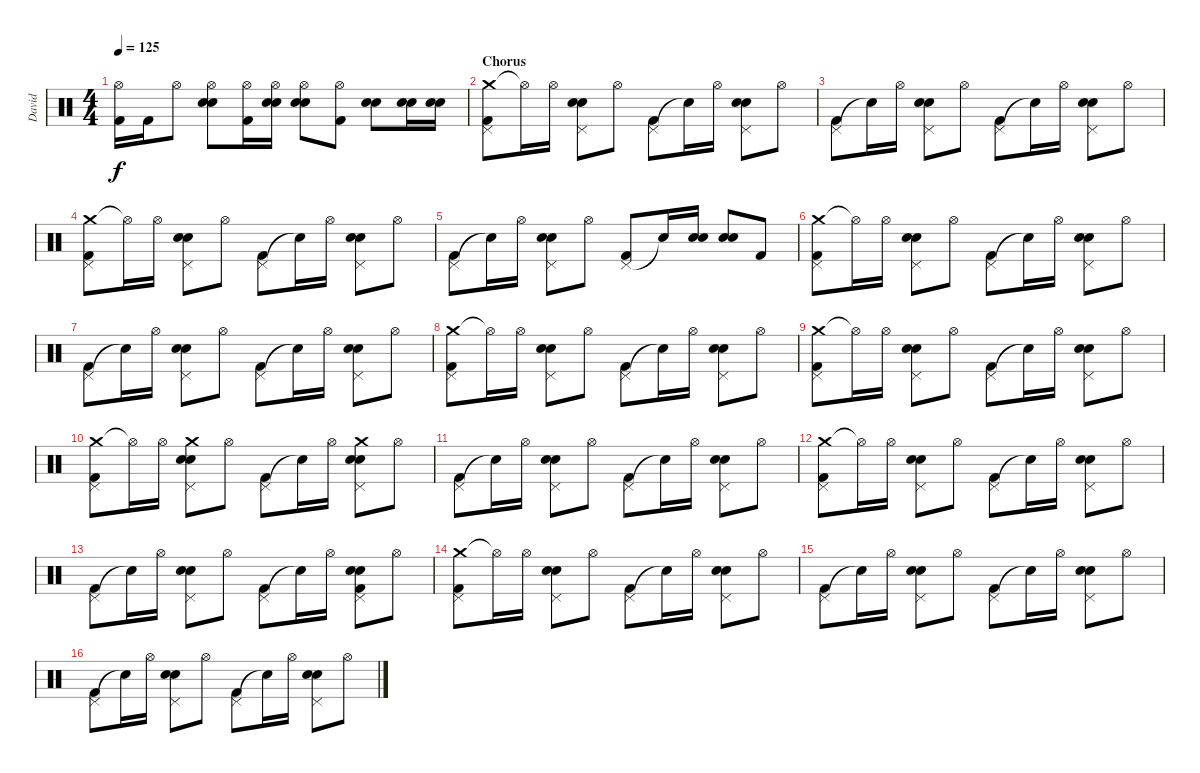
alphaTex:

\track ("David" "David") {instrument percussion}
\staff {score}
\articulation defaults
\ts (4 4)
\tempo 125
\clef neutral
\ks c
("Hi-Hat (open)" "Kick (hit) 2").16{dy f} "Kick (hit) 2".16 "Hi-Hat (open)".8 ("Hi-Hat (open)" "Electric Snare (hit)" "Snare (hit) 2").8 ("Hi-Hat (open)" "Kick (hit) 2").16 ("Hi-Hat (open)" "Electric Snare (hit)" "Snare (hit) 2").16 ("Hi-Hat (open)" "Electric Snare (hit)" "Snare (hit) 2").8 ("Hi-Hat (open)" "Kick (hit) 2").8 ("Electric Snare (hit)" "Snare (hit) 2").8 ("Electric Snare (hit)" "Snare (hit) 2").16 ("Electric Snare (hit)" "Snare (hit) 2").16 |
\section ("" "Chorus")
("Crash medium (hit)" "Pedal Hi-Hat (hit)" "Kick (hit) 2").8 "Hi-Hat (open)"{t}.16 "Hi-Hat (open)".16 ("Electric Snare (hit)" "Snare (hit) 2" "Pedal Hi-Hat (hit)").8 "Hi-Hat (open)".8 ("Pedal Hi-Hat (hit)" "Kick (hit) 2").8 "Snare (hit)"{t}.16 "Hi-Hat (open)".16 ("Snare (hit) 2" "Electric Snare (hit)" "Pedal Hi-Hat (hit)").8 "Hi-Hat (open)".8 |
("Pedal Hi-Hat (hit)" "Kick (hit) 2").8 "Snare (hit)"{t}.16 "Hi-Hat (open)".16 ("Electric Snare (hit)" "Snare (hit) 2" "Pedal Hi-Hat (hit)").8 "Hi-Hat (open)".8 ("Pedal Hi-Hat (hit)" "Kick (hit) 2").8 "Snare (hit)"{t}.16 "Hi-Hat (open)".16 ("Snare (hit) 2" "Electric Snare (hit)" "Pedal Hi-Hat (hit)").8 "Hi-Hat (open)".8 |
("Crash medium (hit)" "Pedal Hi-Hat (hit)" "Kick (hit) 2").8 "Hi-Hat (open)"{t}.16 "Hi-Hat (open)".16 ("Electric Snare (hit)" "Snare (hit) 2" "Pedal Hi-Hat (hit)").8 "Hi-Hat (open)".8 ("Pedal Hi-Hat (hit)" "Kick (hit) 2").8 "Snare (hit)"{t}.16 "Hi-Hat (open)".16 ("Snare (hit) 2" "Electric Snare (hit)" "Pedal Hi-Hat (hit)").8 "Hi-Hat (open)".8 |
("Pedal Hi-Hat (hit)" "Kick (hit) 2").8 "Snare (hit)"{t}.16 "Hi-Hat (open)".16 ("Electric Snare (hit)" "Snare (hit) 2" "Pedal Hi-Hat (hit)").8 "Hi-Hat (open)".8 ("Pedal Hi-Hat (hit)" "Kick (hit) 2").8 "Snare (hit)"{t}.16 ("Snare (hit) 2" "Electric Snare (hit)").16 ("Snare (hit) 2" "Electric Snare (hit)").8 "Kick (hit) 2".8 |
("Crash medium (hit)" "Pedal Hi-Hat (hit)" "Kick (hit) 2").8 "Hi-Hat (open)"{t}.16 "Hi-Hat (open)".16 ("Electric Snare (hit)" "Snare (hit) 2" "Pedal Hi-Hat (hit)").8 "Hi-Hat (open)".8 ("Pedal Hi-Hat (hit)" "Kick (hit) 2").8 "Snare (hit)"{t}.16 "Hi-Hat (open)".16 ("Snare (hit) 2" "Electric Snare (hit)" "Pedal Hi-Hat (hit)").8 "Hi-Hat (open)".8 |
("Pedal Hi-Hat (hit)" "Kick (hit) 2").8 "Snare (hit)"{t}.16 "Hi-Hat (open)".16 ("Electric Snare (hit)" "Snare (hit) 2" "Pedal Hi-Hat (hit)").8 "Hi-Hat (open)".8 ("Pedal Hi-Hat (hit)" "Kick (hit) 2").8 "Snare (hit)"{t}.16 "Hi-Hat (open)".16 ("Snare (hit) 2" "Electric Snare (hit)" "Pedal Hi-Hat (hit)").8 "Hi-Hat (open)".8 |
("Crash medium (hit)" "Pedal Hi-Hat (hit)" "Kick (hit) 2").8 "Hi-Hat (open)"{t}.16 "Hi-Hat (open)".16 ("Electric Snare (hit)" "Snare (hit) 2" "Pedal Hi-Hat (hit)").8 "Hi-Hat (open)".8 ("Pedal Hi-Hat (hit)" "Kick (hit) 2").8 "Snare (hit)"{t}.16 "Hi-Hat (open)".16 ("Snare (hit) 2" "Electric Snare (hit)" "Pedal Hi-Hat (hit)").8 "Hi-Hat (open)".8 |
("Crash medium (hit)" "Pedal Hi-Hat (hit)" "Kick (hit) 2").8 "Hi-Hat (open)"{t}.16 "Hi-Hat (open)".16 ("Electric Snare (hit)" "Snare (hit) 2" "Pedal Hi-Hat (hit)").8 "Hi-Hat (open)".8 ("Pedal Hi-Hat (hit)" "Kick (hit) 2").8 "Snare (hit)"{t}.16 "Hi-Hat (open)".16 ("Snare (hit) 2" "Electric Snare (hit)" "Pedal Hi-Hat (hit)").8 "Hi-Hat (open)".8 |
("Crash medium (hit)" "Pedal Hi-Hat (hit)" "Kick (hit) 2").8 "Hi-Hat (open)"{t}.16 "Hi-Hat (open)".16 ("Snare (hit) 2" "Electric Snare (hit)" "Crash medium (hit)" "Pedal Hi-Hat (hit)").8 "Hi-Hat (open)".8 ("Pedal Hi-Hat (hit)" "Kick (hit) 2").8 "Snare (hit)"{t}.16 "Hi-Hat (open)".16 ("Crash medium (hit)" "Electric Snare (hit)" "Snare (hit) 2" "Pedal Hi-Hat (hit)").8 "Hi-Hat (open)".8 |
("Pedal Hi-Hat (hit)" "Kick (hit) 2").8 "Snare (hit)"{t}.16 "Hi-Hat (open)".16 ("Electric Snare (hit)" "Snare (hit) 2" "Pedal Hi-Hat (hit)").8 "Hi-Hat (open)".8 ("Pedal Hi-Hat (hit)" "Kick (hit) 2").8 "Snare (hit)"{t}.16 "Hi-Hat (open)".16 ("Electric Snare (hit)" "Snare (hit) 2" "Pedal Hi-Hat (hit)").8 "Hi-Hat (open)".8 |
("Crash medium (hit)" "Pedal Hi-Hat (hit)" "Kick (hit) 2").8 "Hi-Hat (open)"{t}.16 "Hi-Hat (open)".16 ("Electric Snare (hit)" "Snare (hit) 2" "Pedal Hi-Hat (hit)").8 "Hi-Hat (open)".8 ("Pedal Hi-Hat (hit)" "Kick (hit) 2").8 "Snare (hit)"{t}.16 "Hi-Hat (open)".16 ("Electric Snare (hit)" "Snare (hit) 2" "Pedal Hi-Hat (hit)").8 "Hi-Hat (open)".8 |
("Pedal Hi-Hat (hit)" "Kick (hit) 2").8 "Snare (hit)"{t}.16 "Hi-Hat (open)".16 ("Electric Snare (hit)" "Snare (hit) 2" "Pedal Hi-Hat (hit)").8 "Hi-Hat (open)".8 ("Pedal Hi-Hat (hit)" "Kick (hit) 2").8 "Snare (hit)"{t}.16 "Hi-Hat (open)".16 ("Snare (hit) 2" "Electric Snare (hit)" "Kick (hit) 2" "Pedal Hi-Hat (hit)").8 "Hi-Hat (open)".8 |
("Crash medium (hit)" "Pedal Hi-Hat (hit)" "Kick (hit) 2").8 "Hi-Hat (open)"{t}.16 "Hi-Hat (open)".16 ("Electric Snare (hit)" "Snare (hit) 2" "Pedal Hi-Hat (hit)").8 "Hi-Hat (open)".8 ("Pedal Hi-Hat (hit)" "Kick (hit) 2").8 "Snare (hit)"{t}.16 "Hi-Hat (open)".16 ("Electric Snare (hit)" "Snare (hit) 2" "Pedal Hi-Hat (hit)").8 "Hi-Hat (open)".8 |
("Pedal Hi-Hat (hit)" "Kick (hit) 2").8 "Snare (hit)"{t}.16 "Hi-Hat (open)".16 ("Electric Snare (hit)" "Snare (hit) 2" "Pedal Hi-Hat (hit)").8 "Hi-Hat (open)".8 ("Pedal Hi-Hat (hit)" "Kick (hit) 2").8 "Snare (hit)"{t}.16 "Hi-Hat (open)".16 ("Electric Snare (hit)" "Pedal Hi-Hat (hit)" "Snare (hit) 2").8 "Hi-Hat (open)".8 |
("Pedal Hi-Hat (hit)" "Kick (hit) 2").8 "Snare (hit)"{t}.16 "Hi-Hat (open)".16 ("Electric Snare (hit)" "Snare (hit) 2" "Pedal Hi-Hat (hit)").8 "Hi-Hat (open)".8 ("Pedal Hi-Hat (hit)" "Kick (hit) 2").8 "Snare (hit)"{t}.16 "Hi-Hat (open)".16 ("Electric Snare (hit)" "Pedal Hi-Hat (hit)" "Snare (hit) 2").8 "Hi-Hat (open)".8
